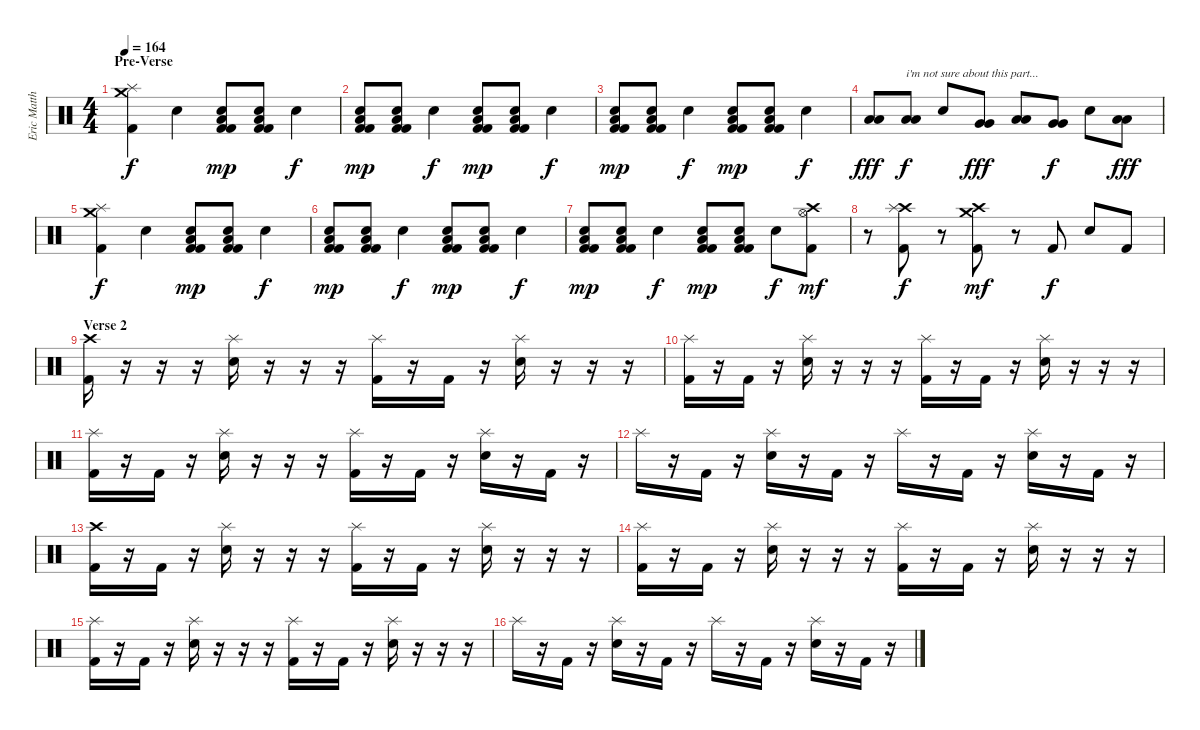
\track ("Eric Matthews (drums)" "Eric Matth") {instrument percussion}
\staff {score}
\articulation defaults
\ts (4 4)
\section ("" "Pre-Verse")
\tempo 164
\clef neutral
\ks c
("Crash medium (hit)" "Splash (hit)" "Kick (hit) 2").4{dy f} "Snare (hit) 2".4 ("Kick (hit) 2" "Low Floor Tom (hit)" "Snare (hit) 2" "Kick (hit) 2").8{dy mp} ("Kick (hit) 2" "Low Floor Tom (hit)" "Snare (hit) 2" "Kick (hit) 2").8 "Snare (hit) 2".4{dy f} |
("Kick (hit) 2" "Low Floor Tom (hit)" "Snare (hit) 2" "Kick (hit) 2").8{dy mp} ("Kick (hit) 2" "Low Floor Tom (hit)" "Snare (hit) 2" "Kick (hit) 2").8 "Snare (hit) 2".4{dy f} ("Kick (hit) 2" "Low Floor Tom (hit)" "Snare (hit) 2" "Kick (hit) 2").8{dy mp} ("Kick (hit) 2" "Low Floor Tom (hit)" "Snare (hit) 2" "Kick (hit) 2").8 "Snare (hit) 2".4{dy f} |
("Kick (hit) 2" "Low Floor Tom (hit)" "Snare (hit) 2" "Kick (hit) 2").8{dy mp} ("Kick (hit) 2" "Low Floor Tom (hit)" "Snare (hit) 2" "Kick (hit) 2").8 "Snare (hit) 2".4{dy f} ("Kick (hit) 2" "Low Floor Tom (hit)" "Snare (hit) 2" "Kick (hit) 2").8{dy mp} ("Kick (hit) 2" "Low Floor Tom (hit)" "Snare (hit) 2" "Kick (hit) 2").8 "Snare (hit) 2".4{dy f} |
("Low Tom (hit)" "Low Tom (hit)").8{dy fff} ("Low Floor Tom (hit)" "Low Floor Tom (hit)").8{txt "i'm not sure about this part..." dy f} "Snare (hit) 2".8 ("Very Low Tom (hit)" "Very Low Tom (hit)").8{dy fff} ("Low Floor Tom (hit)" "Low Floor Tom (hit)").8 ("Very Low Tom (hit)" "Very Low Tom (hit)").8{dy f} "Snare (hit) 2".8 ("Low Floor Tom (hit)" "Low Floor Tom (hit)").8{dy fff} |
("Crash medium (hit)" "Splash (hit)" "Kick (hit) 2").4{dy f} "Snare (hit) 2".4 ("Kick (hit) 2" "Low Floor Tom (hit)" "Snare (hit) 2" "Kick (hit) 2").8{dy mp} ("Kick (hit) 2" "Low Floor Tom (hit)" "Snare (hit) 2" "Kick (hit) 2").8 "Snare (hit) 2".4{dy f} |
("Kick (hit) 2" "Low Floor Tom (hit)" "Snare (hit) 2" "Kick (hit) 2").8{dy mp} ("Kick (hit) 2" "Low Floor Tom (hit)" "Snare (hit) 2" "Kick (hit) 2").8 "Snare (hit) 2".4{dy f} ("Kick (hit) 2" "Low Floor Tom (hit)" "Snare (hit) 2" "Kick (hit) 2").8{dy mp} ("Kick (hit) 2" "Low Floor Tom (hit)" "Snare (hit) 2" "Kick (hit) 2").8 "Snare (hit) 2".4{dy f} |
("Kick (hit) 2" "Low Floor Tom (hit)" "Snare (hit) 2" "Kick (hit) 2").8{dy mp} ("Kick (hit) 2" "Low Floor Tom (hit)" "Snare (hit) 2" "Kick (hit) 2").8 "Snare (hit) 2".4{dy f} ("Kick (hit) 2" "Low Floor Tom (hit)" "Snare (hit) 2" "Kick (hit) 2").8{dy mp} ("Kick (hit) 2" "Low Floor Tom (hit)" "Snare (hit) 2" "Kick (hit) 2").8 "Snare (hit) 2".8{dy f} ("Crash high (hit)" "Hi-Hat (open)" "Kick (hit) 2").8{dy mf} |
r.8 ("Crash high (hit)" "Splash (hit)" "Kick (hit) 2").8{dy f} r.8 ("Crash high (hit)" "Crash medium (hit)" "Kick (hit) 2").8{dy mf} r.8 "Kick (hit) 2".8{dy f} "Snare (hit) 2".8 "Kick (hit) 2".8 |
\section ("" "Verse 2")
("Crash high (hit)" "Kick (hit) 2").16 r.16 r.16 r.16 ("Splash (hit)" "Snare (hit) 2").16 r.16 r.16 r.16 ("Splash (hit)" "Kick (hit) 2").16 r.16 "Kick (hit) 2".16 r.16 ("Splash (hit)" "Snare (hit) 2").16 r.16 r.16 r.16 |
("Splash (hit)" "Kick (hit) 2").16 r.16 "Kick (hit) 2".16 r.16 ("Splash (hit)" "Snare (hit) 2").16 r.16 r.16 r.16 ("Splash (hit)" "Kick (hit) 2").16 r.16 "Kick (hit) 2".16 r.16 ("Splash (hit)" "Snare (hit) 2").16 r.16 r.16 r.16 |
("Splash (hit)" "Kick (hit) 2").16 r.16 "Kick (hit) 2".16 r.16 ("Splash (hit)" "Snare (hit) 2").16 r.16 r.16 r.16 ("Splash (hit)" "Kick (hit) 2").16 r.16 "Kick (hit) 2".16 r.16 ("Splash (hit)" "Snare (hit) 2").16 r.16 "Kick (hit) 2".16 r.16 |
"Splash (hit)".16 r.16 "Kick (hit) 2".16 r.16 ("Splash (hit)" "Snare (hit) 2").16 r.16 "Kick (hit) 2".16 r.16 "Splash (hit)".16 r.16 "Kick (hit) 2".16 r.16 ("Splash (hit)" "Snare (hit) 2").16 r.16 "Kick (hit) 2".16 r.16 |
("Crash high (hit)" "Kick (hit) 2").16 r.16 "Kick (hit) 2".16 r.16 ("Splash (hit)" "Snare (hit) 2").16 r.16 r.16 r.16 ("Splash (hit)" "Kick (hit) 2").16 r.16 "Kick (hit) 2".16 r.16 ("Splash (hit)" "Snare (hit) 2").16 r.16 r.16 r.16 |
("Splash (hit)" "Kick (hit) 2").16 r.16 "Kick (hit) 2".16 r.16 ("Splash (hit)" "Snare (hit) 2").16 r.16 r.16 r.16 ("Splash (hit)" "Kick (hit) 2").16 r.16 "Kick (hit) 2".16 r.16 ("Splash (hit)" "Snare (hit) 2").16 r.16 r.16 r.16 |
("Splash (hit)" "Kick (hit) 2").16 r.16 "Kick (hit) 2".16 r.16 ("Splash (hit)" "Snare (hit) 2").16 r.16 r.16 r.16 ("Splash (hit)" "Kick (hit) 2").16 r.16 "Kick (hit) 2".16 r.16 ("Splash (hit)" "Snare (hit) 2").16 r.16 r.16 r.16 |
"Splash (hit)".16 r.16 "Kick (hit) 2".16 r.16 ("Splash (hit)" "Snare (hit) 2").16 r.16 "Kick (hit) 2".16 r.16 "Splash (hit)".16 r.16 "Kick (hit) 2".16 r.16 ("Splash (hit)" "Snare (hit) 2").16 r.16 "Kick (hit) 2".16 r.16
